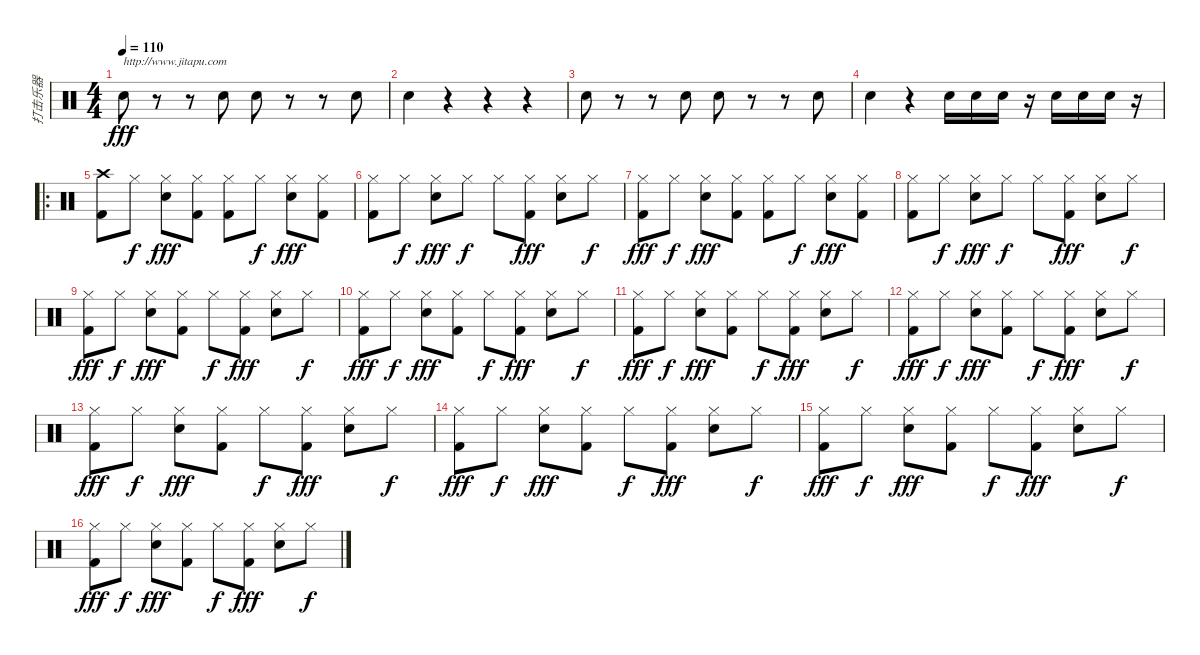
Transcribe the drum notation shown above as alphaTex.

\track ("打击乐器" "打击乐器") {instrument percussion}
\staff {score}
\articulation defaults
\ts (4 4)
\tempo 110
\clef neutral
\ks c "Electric Snare (hit)".8{txt "http://www.jitapu.com" dy fff}
r.8 r.8 "Electric Snare (hit)".8 "Electric Snare (hit)".8 r.8 r.8 "Electric Snare (hit)".8 |
"Electric Snare (hit)".4 r.4 r.4 r.4 |
"Electric Snare (hit)".8 r.8 r.8 "Electric Snare (hit)".8 "Electric Snare (hit)".8 r.8 r.8 "Electric Snare (hit)".8 |
"Electric Snare (hit)".4 r.4 "Electric Snare (hit)".16 "Electric Snare (hit)".16 "Electric Snare (hit)".16 r.16 "Electric Snare (hit)".16 "Electric Snare (hit)".16 "Electric Snare (hit)".16 r.16 |
\ro
("Crash high (hit)" "Kick (hit) 2").8 "Hi-Hat (closed)".8{dy f} ("Hi-Hat (closed)" "Electric Snare (hit)").8{dy fff} ("Hi-Hat (closed)" "Kick (hit) 2").8 ("Hi-Hat (closed)" "Kick (hit) 2").8 "Hi-Hat (closed)".8{dy f} ("Hi-Hat (closed)" "Electric Snare (hit)").8{dy fff} ("Hi-Hat (closed)" "Kick (hit) 2").8 |
("Hi-Hat (closed)" "Kick (hit) 2").8 "Hi-Hat (closed)".8{dy f} ("Hi-Hat (closed)" "Electric Snare (hit)").8{dy fff} "Hi-Hat (closed)".8{dy f} "Hi-Hat (closed)".8 ("Hi-Hat (closed)" "Kick (hit) 2").8{dy fff} ("Hi-Hat (closed)" "Electric Snare (hit)").8 "Hi-Hat (closed)".8{dy f} |
("Hi-Hat (closed)" "Kick (hit) 2").8{dy fff} "Hi-Hat (closed)".8{dy f} ("Hi-Hat (closed)" "Electric Snare (hit)").8{dy fff} ("Hi-Hat (closed)" "Kick (hit) 2").8 ("Hi-Hat (closed)" "Kick (hit) 2").8 "Hi-Hat (closed)".8{dy f} ("Hi-Hat (closed)" "Electric Snare (hit)").8{dy fff} ("Hi-Hat (closed)" "Kick (hit) 2").8 |
("Hi-Hat (closed)" "Kick (hit) 2").8 "Hi-Hat (closed)".8{dy f} ("Hi-Hat (closed)" "Electric Snare (hit)").8{dy fff} "Hi-Hat (closed)".8{dy f} "Hi-Hat (closed)".8 ("Hi-Hat (closed)" "Kick (hit) 2").8{dy fff} ("Hi-Hat (closed)" "Electric Snare (hit)").8 "Hi-Hat (closed)".8{dy f} |
("Hi-Hat (closed)" "Kick (hit) 2").8{dy fff} "Hi-Hat (closed)".8{dy f} ("Hi-Hat (closed)" "Electric Snare (hit)").8{dy fff} ("Hi-Hat (closed)" "Kick (hit) 2").8 "Hi-Hat (closed)".8{dy f} ("Hi-Hat (closed)" "Kick (hit) 2").8{dy fff} ("Hi-Hat (closed)" "Electric Snare (hit)").8 "Hi-Hat (closed)".8{dy f} |
("Hi-Hat (closed)" "Kick (hit) 2").8{dy fff} "Hi-Hat (closed)".8{dy f} ("Hi-Hat (closed)" "Electric Snare (hit)").8{dy fff} ("Hi-Hat (closed)" "Kick (hit) 2").8 "Hi-Hat (closed)".8{dy f} ("Hi-Hat (closed)" "Kick (hit) 2").8{dy fff} ("Hi-Hat (closed)" "Electric Snare (hit)").8 "Hi-Hat (closed)".8{dy f} |
("Hi-Hat (closed)" "Kick (hit) 2").8{dy fff} "Hi-Hat (closed)".8{dy f} ("Hi-Hat (closed)" "Electric Snare (hit)").8{dy fff} ("Hi-Hat (closed)" "Kick (hit) 2").8 "Hi-Hat (closed)".8{dy f} ("Hi-Hat (closed)" "Kick (hit) 2").8{dy fff} ("Hi-Hat (closed)" "Electric Snare (hit)").8 "Hi-Hat (closed)".8{dy f} |
("Hi-Hat (closed)" "Kick (hit) 2").8{dy fff} "Hi-Hat (closed)".8{dy f} ("Hi-Hat (closed)" "Electric Snare (hit)").8{dy fff} ("Hi-Hat (closed)" "Kick (hit) 2").8 "Hi-Hat (closed)".8{dy f} ("Hi-Hat (closed)" "Kick (hit) 2").8{dy fff} ("Hi-Hat (closed)" "Electric Snare (hit)").8 "Hi-Hat (closed)".8{dy f} |
("Hi-Hat (closed)" "Kick (hit) 2").8{dy fff} "Hi-Hat (closed)".8{dy f} ("Hi-Hat (closed)" "Electric Snare (hit)").8{dy fff} ("Hi-Hat (closed)" "Kick (hit) 2").8 "Hi-Hat (closed)".8{dy f} ("Hi-Hat (closed)" "Kick (hit) 2").8{dy fff} ("Hi-Hat (closed)" "Electric Snare (hit)").8 "Hi-Hat (closed)".8{dy f} |
("Hi-Hat (closed)" "Kick (hit) 2").8{dy fff} "Hi-Hat (closed)".8{dy f} ("Hi-Hat (closed)" "Electric Snare (hit)").8{dy fff} ("Hi-Hat (closed)" "Kick (hit) 2").8 "Hi-Hat (closed)".8{dy f} ("Hi-Hat (closed)" "Kick (hit) 2").8{dy fff} ("Hi-Hat (closed)" "Electric Snare (hit)").8 "Hi-Hat (closed)".8{dy f} |
("Hi-Hat (closed)" "Kick (hit) 2").8{dy fff} "Hi-Hat (closed)".8{dy f} ("Hi-Hat (closed)" "Electric Snare (hit)").8{dy fff} ("Hi-Hat (closed)" "Kick (hit) 2").8 "Hi-Hat (closed)".8{dy f} ("Hi-Hat (closed)" "Kick (hit) 2").8{dy fff} ("Hi-Hat (closed)" "Electric Snare (hit)").8 "Hi-Hat (closed)".8{dy f} |
("Hi-Hat (closed)" "Kick (hit) 2").8{dy fff} "Hi-Hat (closed)".8{dy f} ("Hi-Hat (closed)" "Electric Snare (hit)").8{dy fff} ("Hi-Hat (closed)" "Kick (hit) 2").8 "Hi-Hat (closed)".8{dy f} ("Hi-Hat (closed)" "Kick (hit) 2").8{dy fff} ("Hi-Hat (closed)" "Electric Snare (hit)").8 "Hi-Hat (closed)".8{dy f}
